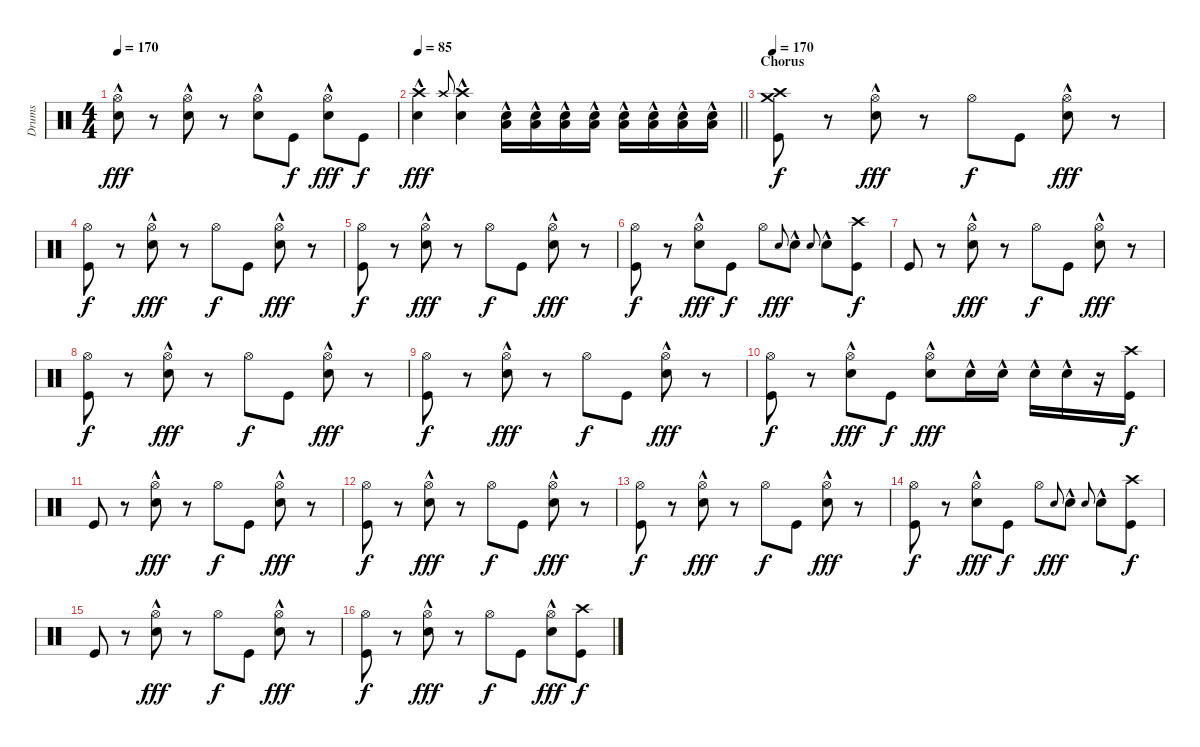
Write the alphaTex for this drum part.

\track ("Drums" "Drums") {instrument percussion}
\staff {score}
\articulation defaults
\ts (4 4)
\tempo 170
\clef neutral
\ks c
("Hi-Hat (open)"{hac} "Electric Snare (hit)"{hac}).8{dy fff} r.8 ("Hi-Hat (open)"{hac} "Electric Snare (hit)"{hac}).8 r.8 ("Hi-Hat (open)"{hac} "Electric Snare (hit)"{hac}).8 "Kick (hit)".8{dy f} ("Hi-Hat (open)"{hac} "Electric Snare (hit)"{hac}).8{dy fff} "Kick (hit)".8{dy f} |
\tempo 85
\barLineRight lightlight
("Crash high (hit)"{hac} "Electric Snare (hit)"{hac}).4{dy fff} "Crash high (hit)".8{gr onbeat} ("Crash high (hit)"{hac} "Electric Snare (hit)"{hac}).4 ("Electric Snare (hit)"{hac} "Low Floor Tom (hit)").16{volume 9} ("Electric Snare (hit)"{hac} "Low Floor Tom (hit)").16{volume 10} ("Electric Snare (hit)"{hac} "Low Floor Tom (hit)").16{volume 11} ("Electric Snare (hit)"{hac} "Low Floor Tom (hit)").16{volume 12} ("Electric Snare (hit)"{hac} "Low Floor Tom (hit)").16{volume 13} ("Electric Snare (hit)"{hac} "Low Floor Tom (hit)").16{volume 14} ("Electric Snare (hit)"{hac} "Low Floor Tom (hit)").16{volume 15} ("Electric Snare (hit)"{hac} "Low Floor Tom (hit)").16{volume 16} |
\section ("" "Chorus")
\tempo 170
("Crash high (hit)" "Crash medium (hit)" "Kick (hit)").8{dy f} r.8 ("Hi-Hat (open)" "Electric Snare (hit)"{hac}).8{dy fff} r.8 "Hi-Hat (open)".8{dy f} "Kick (hit)".8 ("Hi-Hat (open)" "Electric Snare (hit)"{hac}).8{dy fff} r.8 |
("Hi-Hat (open)" "Kick (hit)").8{dy f} r.8 ("Hi-Hat (open)" "Electric Snare (hit)"{hac}).8{dy fff} r.8 "Hi-Hat (open)".8{dy f} "Kick (hit)".8 ("Hi-Hat (open)" "Electric Snare (hit)"{hac}).8{dy fff} r.8 |
("Hi-Hat (open)" "Kick (hit)").8{dy f} r.8 ("Hi-Hat (open)" "Electric Snare (hit)"{hac}).8{dy fff} r.8 "Hi-Hat (open)".8{dy f} "Kick (hit)".8 ("Hi-Hat (open)" "Electric Snare (hit)"{hac}).8{dy fff} r.8 |
("Hi-Hat (open)" "Kick (hit)").8{dy f} r.8 ("Hi-Hat (open)" "Electric Snare (hit)"{hac}).8{dy fff} "Kick (hit)".8{dy f} "Hi-Hat (open)".8 "Electric Snare (hit)"{sl}.8{gr onbeat dy fff} "Electric Snare (hit)"{hac}.8 "Electric Snare (hit)"{sl}.8{gr onbeat} "Electric Snare (hit)"{hac}.8 ("Crash high (hit)" "Kick (hit)").8{dy f} |
"Kick (hit)".8 r.8 ("Hi-Hat (open)" "Electric Snare (hit)"{hac}).8{dy fff} r.8 "Hi-Hat (open)".8{dy f} "Kick (hit)".8 ("Hi-Hat (open)" "Electric Snare (hit)"{hac}).8{dy fff} r.8 |
("Hi-Hat (open)" "Kick (hit)").8{dy f} r.8 ("Hi-Hat (open)" "Electric Snare (hit)"{hac}).8{dy fff} r.8 "Hi-Hat (open)".8{dy f} "Kick (hit)".8 ("Hi-Hat (open)" "Electric Snare (hit)"{hac}).8{dy fff} r.8 |
("Hi-Hat (open)" "Kick (hit)").8{dy f} r.8 ("Hi-Hat (open)" "Electric Snare (hit)"{hac}).8{dy fff} r.8 "Hi-Hat (open)".8{dy f} "Kick (hit)".8 ("Hi-Hat (open)" "Electric Snare (hit)"{hac}).8{dy fff} r.8 |
("Hi-Hat (open)" "Kick (hit)").8{dy f} r.8 ("Hi-Hat (open)" "Electric Snare (hit)"{hac}).8{dy fff} "Kick (hit)".8{dy f} ("Hi-Hat (open)" "Electric Snare (hit)"{hac}).8{dy fff} "Electric Snare (hit)"{hac}.16 "Electric Snare (hit)"{hac}.16 "Electric Snare (hit)"{hac}.16 "Electric Snare (hit)"{hac}.16 r.16 ("Crash high (hit)" "Kick (hit)").16{dy f} |
"Kick (hit)".8 r.8 ("Hi-Hat (open)" "Electric Snare (hit)"{hac}).8{dy fff} r.8 "Hi-Hat (open)".8{dy f} "Kick (hit)".8 ("Hi-Hat (open)" "Electric Snare (hit)"{hac}).8{dy fff} r.8 |
("Hi-Hat (open)" "Kick (hit)").8{dy f} r.8 ("Hi-Hat (open)" "Electric Snare (hit)"{hac}).8{dy fff} r.8 "Hi-Hat (open)".8{dy f} "Kick (hit)".8 ("Hi-Hat (open)" "Electric Snare (hit)"{hac}).8{dy fff} r.8 |
("Hi-Hat (open)" "Kick (hit)").8{dy f} r.8 ("Hi-Hat (open)" "Electric Snare (hit)"{hac}).8{dy fff} r.8 "Hi-Hat (open)".8{dy f} "Kick (hit)".8 ("Hi-Hat (open)" "Electric Snare (hit)"{hac}).8{dy fff} r.8 |
("Hi-Hat (open)" "Kick (hit)").8{dy f} r.8 ("Hi-Hat (open)" "Electric Snare (hit)"{hac}).8{dy fff} "Kick (hit)".8{dy f} "Hi-Hat (open)".8 "Electric Snare (hit)"{sl}.8{gr onbeat dy fff} "Electric Snare (hit)"{hac}.8 "Electric Snare (hit)"{sl}.8{gr onbeat} "Electric Snare (hit)"{hac}.8 ("Crash high (hit)" "Kick (hit)").8{dy f} |
"Kick (hit)".8 r.8 ("Hi-Hat (open)" "Electric Snare (hit)"{hac}).8{dy fff} r.8 "Hi-Hat (open)".8{dy f} "Kick (hit)".8 ("Hi-Hat (open)" "Electric Snare (hit)"{hac}).8{dy fff} r.8 |
("Hi-Hat (open)" "Kick (hit)").8{dy f} r.8 ("Hi-Hat (open)" "Electric Snare (hit)"{hac}).8{dy fff} r.8 "Hi-Hat (open)".8{dy f} "Kick (hit)".8 ("Hi-Hat (open)" "Electric Snare (hit)"{hac}).8{dy fff} ("Crash high (hit)" "Kick (hit)").8{dy f}
